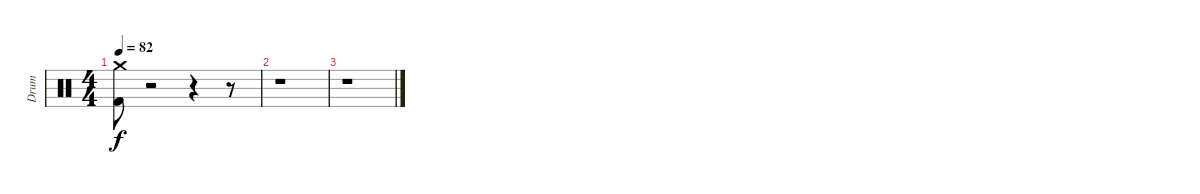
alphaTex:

\track ("Drum" "Drum") {instrument percussion}
\staff {score}
\articulation defaults
\ts (4 4)
\tempo 82
\clef neutral
\ks c
("Crash medium (hit)" "Kick (hit) 2").8{dy f} r.2 r.4 r.8 |
r.1 |
r.1
